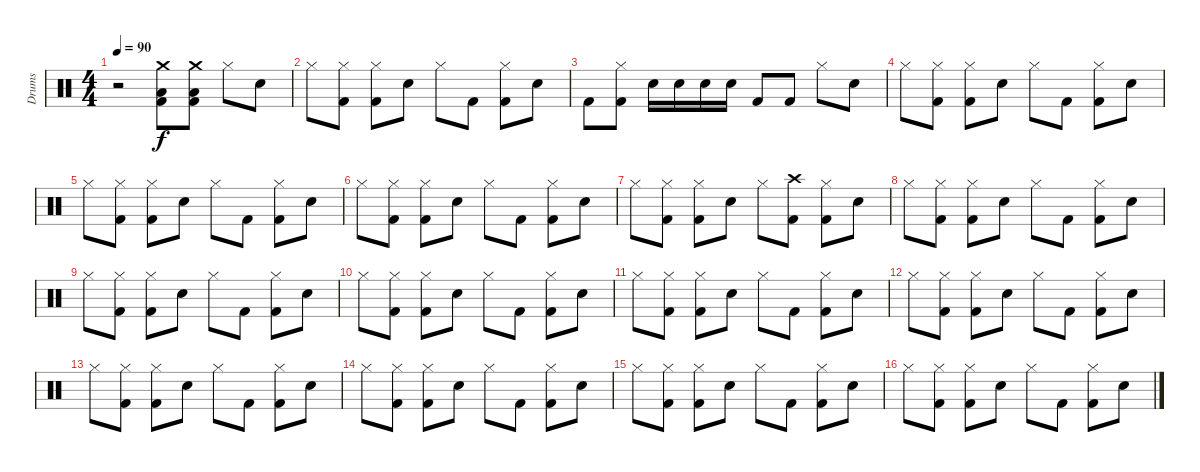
\track ("Drums" "Drums") {instrument percussion}
\staff {score}
\articulation defaults
\ts (4 4)
\tempo 90
\clef neutral
\ks c
r.2{dy f} ("Crash medium (hit)" "Low Floor Tom (hit)" "Kick (hit) 2").8 ("Crash medium (hit)" "Low Floor Tom (hit)" "Kick (hit) 2").8 "Hi-Hat (closed)".8 "Snare (hit) 2".8 |
"Hi-Hat (closed)".8 ("Hi-Hat (closed)" "Kick (hit) 2").8 ("Hi-Hat (closed)" "Kick (hit) 2").8 "Snare (hit) 2".8 "Hi-Hat (closed)".8 "Kick (hit) 2".8 ("Hi-Hat (closed)" "Kick (hit) 2").8 "Snare (hit) 2".8 |
"Kick (hit) 2".8 ("Hi-Hat (closed)" "Kick (hit) 2").8 "Snare (hit) 2".16 "Snare (hit) 2".16 "Snare (hit) 2".16 "Snare (hit) 2".16 "Kick (hit) 2".8 "Kick (hit) 2".8 "Hi-Hat (closed)".8 "Snare (hit) 2".8 |
"Hi-Hat (closed)".8 ("Hi-Hat (closed)" "Kick (hit) 2").8 ("Hi-Hat (closed)" "Kick (hit) 2").8 "Snare (hit) 2".8 "Hi-Hat (closed)".8 "Kick (hit) 2".8 ("Hi-Hat (closed)" "Kick (hit) 2").8 "Snare (hit) 2".8 |
"Hi-Hat (closed)".8 ("Hi-Hat (closed)" "Kick (hit) 2").8 ("Hi-Hat (closed)" "Kick (hit) 2").8 "Snare (hit) 2".8 "Hi-Hat (closed)".8 "Kick (hit) 2".8 ("Hi-Hat (closed)" "Kick (hit) 2").8 "Snare (hit) 2".8 |
"Hi-Hat (closed)".8 ("Hi-Hat (closed)" "Kick (hit) 2").8 ("Hi-Hat (closed)" "Kick (hit) 2").8 "Snare (hit) 2".8 "Hi-Hat (closed)".8 "Kick (hit) 2".8 ("Hi-Hat (closed)" "Kick (hit) 2").8 "Snare (hit) 2".8 |
"Hi-Hat (closed)".8 ("Hi-Hat (closed)" "Kick (hit) 2").8 ("Hi-Hat (closed)" "Kick (hit) 2").8 "Snare (hit) 2".8 "Hi-Hat (closed)".8 ("Crash high (hit)" "Kick (hit) 2").8 ("Hi-Hat (closed)" "Kick (hit) 2").8 "Snare (hit) 2".8 |
"Hi-Hat (closed)".8 ("Hi-Hat (closed)" "Kick (hit) 2").8 ("Hi-Hat (closed)" "Kick (hit) 2").8 "Snare (hit) 2".8 "Hi-Hat (closed)".8 "Kick (hit) 2".8 ("Hi-Hat (closed)" "Kick (hit) 2").8 "Snare (hit) 2".8 |
"Hi-Hat (closed)".8 ("Hi-Hat (closed)" "Kick (hit) 2").8 ("Hi-Hat (closed)" "Kick (hit) 2").8 "Snare (hit) 2".8 "Hi-Hat (closed)".8 "Kick (hit) 2".8 ("Hi-Hat (closed)" "Kick (hit) 2").8 "Snare (hit) 2".8 |
"Hi-Hat (closed)".8 ("Hi-Hat (closed)" "Kick (hit) 2").8 ("Hi-Hat (closed)" "Kick (hit) 2").8 "Snare (hit) 2".8 "Hi-Hat (closed)".8 "Kick (hit) 2".8 ("Hi-Hat (closed)" "Kick (hit) 2").8 "Snare (hit) 2".8 |
"Hi-Hat (closed)".8 ("Hi-Hat (closed)" "Kick (hit) 2").8 ("Hi-Hat (closed)" "Kick (hit) 2").8 "Snare (hit) 2".8 "Hi-Hat (closed)".8 "Kick (hit) 2".8 ("Hi-Hat (closed)" "Kick (hit) 2").8 "Snare (hit) 2".8 |
"Hi-Hat (closed)".8 ("Hi-Hat (closed)" "Kick (hit) 2").8 ("Hi-Hat (closed)" "Kick (hit) 2").8 "Snare (hit) 2".8 "Hi-Hat (closed)".8 "Kick (hit) 2".8 ("Hi-Hat (closed)" "Kick (hit) 2").8 "Snare (hit) 2".8 |
"Hi-Hat (closed)".8 ("Hi-Hat (closed)" "Kick (hit) 2").8 ("Hi-Hat (closed)" "Kick (hit) 2").8 "Snare (hit) 2".8 "Hi-Hat (closed)".8 "Kick (hit) 2".8 ("Hi-Hat (closed)" "Kick (hit) 2").8 "Snare (hit) 2".8 |
"Hi-Hat (closed)".8 ("Hi-Hat (closed)" "Kick (hit) 2").8 ("Hi-Hat (closed)" "Kick (hit) 2").8 "Snare (hit) 2".8 "Hi-Hat (closed)".8 "Kick (hit) 2".8 ("Hi-Hat (closed)" "Kick (hit) 2").8 "Snare (hit) 2".8 |
"Hi-Hat (closed)".8 ("Hi-Hat (closed)" "Kick (hit) 2").8 ("Hi-Hat (closed)" "Kick (hit) 2").8 "Snare (hit) 2".8 "Hi-Hat (closed)".8 "Kick (hit) 2".8 ("Hi-Hat (closed)" "Kick (hit) 2").8 "Snare (hit) 2".8 |
"Hi-Hat (closed)".8 ("Hi-Hat (closed)" "Kick (hit) 2").8 ("Hi-Hat (closed)" "Kick (hit) 2").8 "Snare (hit) 2".8 "Hi-Hat (closed)".8 "Kick (hit) 2".8 ("Hi-Hat (closed)" "Kick (hit) 2").8 "Snare (hit) 2".8
